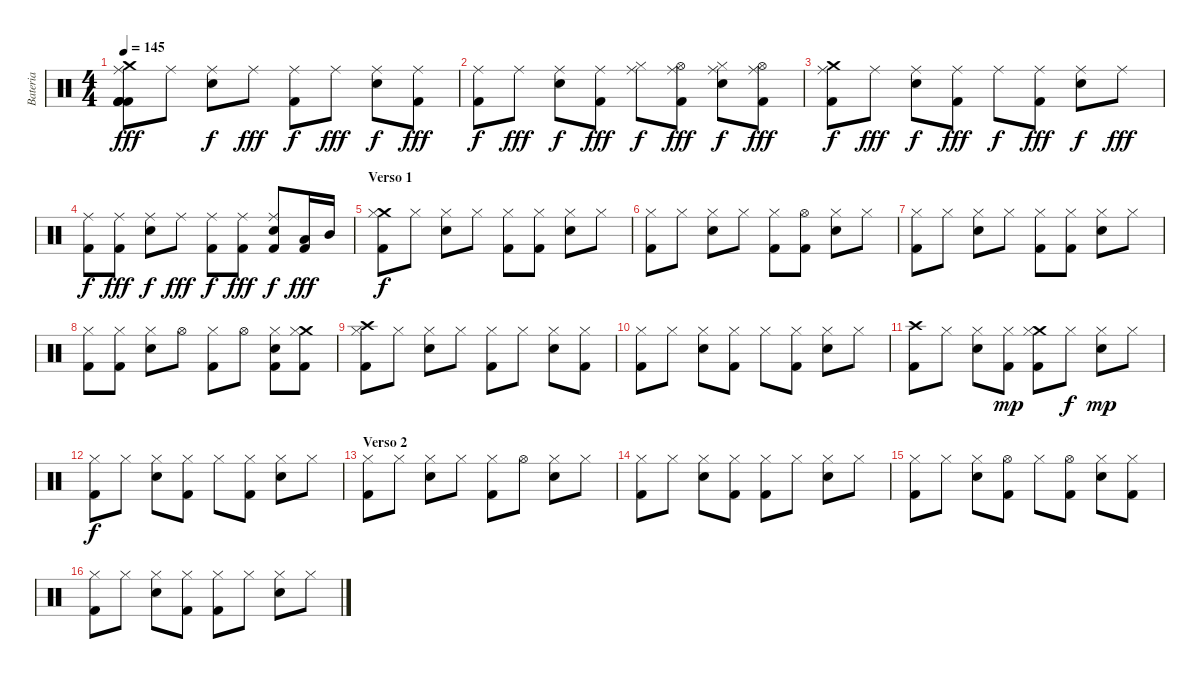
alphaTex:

\track ("Bateria" "Bateria") {instrument percussion}
\staff {score}
\articulation defaults
\ts (4 4)
\tempo 145
\clef neutral
\ks c
("Crash medium (hit)" "Kick (hit) 2" "Ride (middle)" "Kick (hit) 2" "Kick (hit) 2" "Kick (hit) 2").8{dy fff} "Ride (middle)".8 ("Ride (middle)" "Electric Snare (hit)").8{dy f} "Ride (middle)".8{dy fff} ("Ride (middle)" "Kick (hit) 2").8{dy f} "Ride (middle)".8{dy fff} ("Ride (middle)" "Electric Snare (hit)").8{dy f} ("Ride (middle)" "Kick (hit) 2").8{dy fff} |
("Ride (middle)" "Kick (hit) 2").8{dy f} "Ride (middle)".8{dy fff} ("Ride (middle)" "Electric Snare (hit)").8{dy f} ("Ride (middle)" "Kick (hit) 2").8{dy fff} ("Hi-Hat (closed)" "Ride (middle)").8{dy f} ("Hi-Hat (open)" "Ride (middle)" "Kick (hit) 2").8{dy fff} ("Hi-Hat (closed)" "Ride (middle)" "Electric Snare (hit)").8{dy f} ("Hi-Hat (open)" "Ride (middle)" "Kick (hit) 2").8{dy fff} |
("Crash medium (hit)" "Ride (middle)" "Kick (hit) 2").8{dy f} "Ride (middle)".8{dy fff} ("Ride (middle)" "Electric Snare (hit)").8{dy f} ("Ride (middle)" "Kick (hit) 2").8{dy fff} "Ride (middle)".8{dy f} ("Ride (middle)" "Kick (hit) 2").8{dy fff} ("Ride (middle)" "Electric Snare (hit)").8{dy f} "Ride (middle)".8{dy fff} |
("Ride (middle)" "Kick (hit) 2").8{dy f} ("Ride (middle)" "Kick (hit) 2").8{dy fff} ("Ride (middle)" "Electric Snare (hit)").8{dy f} "Ride (middle)".8{dy fff} ("Ride (middle)" "Kick (hit) 2").8{dy f} ("Ride (middle)" "Kick (hit) 2").8{dy fff} ("Ride (middle)" "Electric Snare (hit)" "Kick (hit) 2").8{dy f} ("Low Tom (hit)" "Kick (hit) 2").16{dy fff} "Mid Tom (hit)".16 |
\section ("" "Verso 1")
("Crash medium (hit)" "Hi-Hat (closed)" "Kick (hit) 2").8{dy f} "Hi-Hat (closed)".8 ("Hi-Hat (closed)" "Electric Snare (hit)").8 "Hi-Hat (closed)".8 ("Hi-Hat (closed)" "Kick (hit) 2").8 ("Hi-Hat (closed)" "Kick (hit) 2").8 ("Hi-Hat (closed)" "Electric Snare (hit)").8 "Hi-Hat (closed)".8 |
("Hi-Hat (closed)" "Kick (hit) 2").8 "Hi-Hat (closed)".8 ("Hi-Hat (closed)" "Electric Snare (hit)").8 "Hi-Hat (closed)".8 ("Hi-Hat (closed)" "Kick (hit) 2").8 ("Hi-Hat (open)" "Kick (hit) 2").8 ("Hi-Hat (closed)" "Electric Snare (hit)").8 "Hi-Hat (closed)".8 |
("Hi-Hat (closed)" "Kick (hit) 2").8 "Hi-Hat (closed)".8 ("Hi-Hat (closed)" "Electric Snare (hit)").8 "Hi-Hat (closed)".8 ("Hi-Hat (closed)" "Kick (hit) 2").8 ("Hi-Hat (closed)" "Kick (hit) 2").8 ("Hi-Hat (closed)" "Electric Snare (hit)").8 "Hi-Hat (closed)".8 |
("Hi-Hat (closed)" "Kick (hit) 2").8 ("Hi-Hat (closed)" "Kick (hit) 2").8 ("Hi-Hat (closed)" "Electric Snare (hit)").8 "Hi-Hat (open)".8 ("Hi-Hat (closed)" "Kick (hit) 2").8 "Hi-Hat (open)".8 ("Hi-Hat (closed)" "Electric Snare (hit)" "Kick (hit) 2").8 ("Crash medium (hit)" "Hi-Hat (closed)" "Kick (hit) 2").8 |
("Crash high (hit)" "Hi-Hat (closed)" "Kick (hit) 2").8 "Hi-Hat (closed)".8 ("Hi-Hat (closed)" "Electric Snare (hit)").8 "Hi-Hat (closed)".8 ("Hi-Hat (closed)" "Kick (hit) 2").8 "Hi-Hat (closed)".8 ("Hi-Hat (closed)" "Electric Snare (hit)").8 ("Hi-Hat (closed)" "Kick (hit) 2").8 |
("Hi-Hat (closed)" "Kick (hit) 2").8 "Hi-Hat (closed)".8 ("Hi-Hat (closed)" "Electric Snare (hit)").8 ("Hi-Hat (closed)" "Kick (hit) 2").8 "Hi-Hat (closed)".8 ("Hi-Hat (closed)" "Kick (hit) 2").8 ("Hi-Hat (closed)" "Electric Snare (hit)").8 "Hi-Hat (closed)".8 |
("Crash high (hit)" "Kick (hit) 2").8 "Hi-Hat (closed)".8 ("Hi-Hat (closed)" "Electric Snare (hit)").8 ("Hi-Hat (closed)" "Kick (hit) 2").8{dy mp} ("Crash medium (hit)" "Hi-Hat (closed)" "Kick (hit) 2").8 "Hi-Hat (closed)".8{dy f} ("Hi-Hat (closed)" "Electric Snare (hit)").8{dy mp} "Hi-Hat (closed)".8 |
("Hi-Hat (closed)" "Kick (hit) 2").8{dy f} "Hi-Hat (closed)".8 ("Hi-Hat (closed)" "Electric Snare (hit)").8 ("Hi-Hat (closed)" "Kick (hit) 2").8 "Hi-Hat (closed)".8 ("Hi-Hat (closed)" "Kick (hit) 2").8 ("Hi-Hat (closed)" "Electric Snare (hit)").8 "Hi-Hat (closed)".8 |
\section ("" "Verso 2")
("Hi-Hat (closed)" "Kick (hit) 2").8 "Hi-Hat (closed)".8 ("Hi-Hat (closed)" "Electric Snare (hit)").8 "Hi-Hat (closed)".8 ("Hi-Hat (closed)" "Kick (hit) 2").8 "Hi-Hat (open)".8 ("Hi-Hat (closed)" "Electric Snare (hit)").8 "Hi-Hat (closed)".8 |
("Hi-Hat (closed)" "Kick (hit) 2").8 "Hi-Hat (closed)".8 ("Hi-Hat (closed)" "Electric Snare (hit)").8 ("Hi-Hat (closed)" "Kick (hit) 2").8 ("Hi-Hat (closed)" "Kick (hit) 2").8 "Hi-Hat (closed)".8 ("Hi-Hat (closed)" "Electric Snare (hit)").8 "Hi-Hat (closed)".8 |
("Hi-Hat (closed)" "Kick (hit) 2").8 "Hi-Hat (closed)".8 ("Hi-Hat (closed)" "Electric Snare (hit)").8 ("Hi-Hat (open)" "Kick (hit) 2").8 "Hi-Hat (closed)".8 ("Hi-Hat (open)" "Kick (hit) 2").8 ("Hi-Hat (closed)" "Electric Snare (hit)").8 ("Hi-Hat (closed)" "Kick (hit) 2").8 |
("Hi-Hat (closed)" "Kick (hit) 2").8 "Hi-Hat (closed)".8 ("Hi-Hat (closed)" "Electric Snare (hit)").8 ("Hi-Hat (closed)" "Kick (hit) 2").8 ("Hi-Hat (closed)" "Kick (hit) 2").8 "Hi-Hat (closed)".8 ("Hi-Hat (closed)" "Electric Snare (hit)").8 "Hi-Hat (closed)".8
